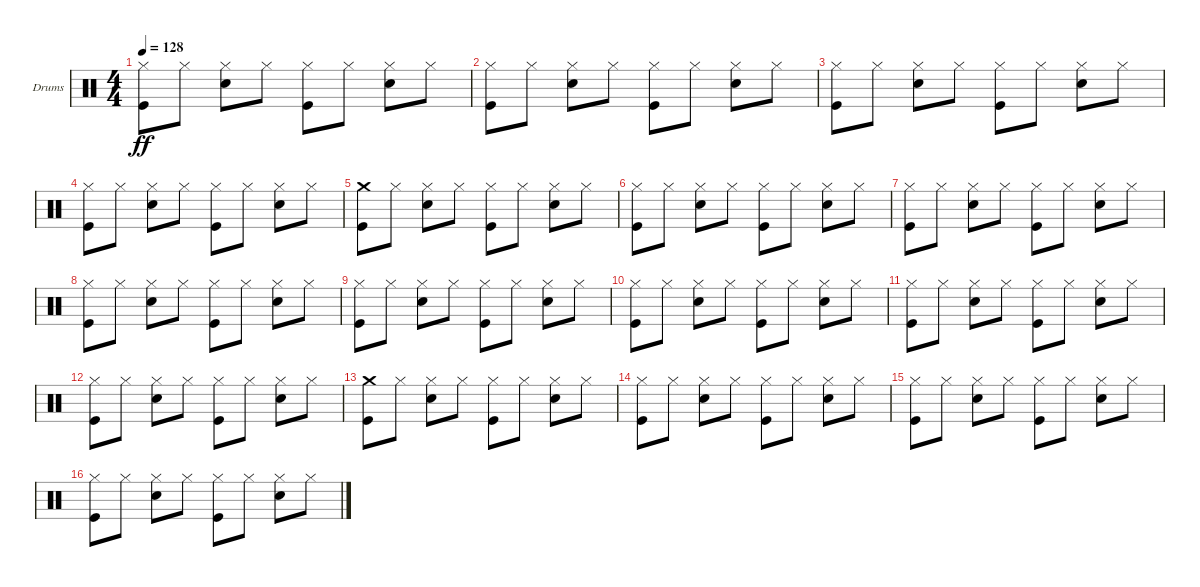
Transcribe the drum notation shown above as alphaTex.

\defaultSystemsLayout 4
\bracketExtendMode groupsimilarinstruments
\firstSystemTrackNameOrientation horizontal
\otherSystemsTrackNameOrientation horizontal
\track ("Drums" "Drums") {instrument percussion}
\staff {score}
\articulation defaults
\ts (4 4)
\tempo 128
\clef neutral
\ks c
("Kick (hit)" "Hi-Hat (closed)").8{dy ff} "Hi-Hat (closed)".8 ("Snare (hit) 2" "Hi-Hat (closed)").8 "Hi-Hat (closed)".8 ("Kick (hit)" "Hi-Hat (closed)").8 "Hi-Hat (closed)".8 ("Snare (hit) 2" "Hi-Hat (closed)").8 "Hi-Hat (closed)".8 |
("Kick (hit)" "Hi-Hat (closed)").8 "Hi-Hat (closed)".8 ("Snare (hit) 2" "Hi-Hat (closed)").8 "Hi-Hat (closed)".8 ("Hi-Hat (closed)" "Kick (hit)").8 "Hi-Hat (closed)".8 ("Snare (hit) 2" "Hi-Hat (closed)").8 "Hi-Hat (closed)".8 |
("Kick (hit)" "Hi-Hat (closed)").8 "Hi-Hat (closed)".8 ("Snare (hit) 2" "Hi-Hat (closed)").8 "Hi-Hat (closed)".8 ("Kick (hit)" "Hi-Hat (closed)").8 "Hi-Hat (closed)".8 ("Snare (hit) 2" "Hi-Hat (closed)").8 "Hi-Hat (closed)".8 |
("Kick (hit)" "Hi-Hat (closed)").8 "Hi-Hat (closed)".8 ("Snare (hit) 2" "Hi-Hat (closed)").8 "Hi-Hat (closed)".8 ("Hi-Hat (closed)" "Kick (hit)").8 "Hi-Hat (closed)".8 ("Snare (hit) 2" "Hi-Hat (closed)").8 "Hi-Hat (closed)".8 |
("Kick (hit)" "Crash medium (hit)").8 "Hi-Hat (closed)".8 ("Snare (hit) 2" "Hi-Hat (closed)").8 "Hi-Hat (closed)".8 ("Kick (hit)" "Hi-Hat (closed)").8 "Hi-Hat (closed)".8 ("Snare (hit) 2" "Hi-Hat (closed)").8 "Hi-Hat (closed)".8 |
("Kick (hit)" "Hi-Hat (closed)").8 "Hi-Hat (closed)".8 ("Snare (hit) 2" "Hi-Hat (closed)").8 "Hi-Hat (closed)".8 ("Hi-Hat (closed)" "Kick (hit)").8 "Hi-Hat (closed)".8 ("Snare (hit) 2" "Hi-Hat (closed)").8 "Hi-Hat (closed)".8 |
("Kick (hit)" "Hi-Hat (closed)").8 "Hi-Hat (closed)".8 ("Snare (hit) 2" "Hi-Hat (closed)").8 "Hi-Hat (closed)".8 ("Kick (hit)" "Hi-Hat (closed)").8 "Hi-Hat (closed)".8 ("Snare (hit) 2" "Hi-Hat (closed)").8 "Hi-Hat (closed)".8 |
("Kick (hit)" "Hi-Hat (closed)").8 "Hi-Hat (closed)".8 ("Snare (hit) 2" "Hi-Hat (closed)").8 "Hi-Hat (closed)".8 ("Hi-Hat (closed)" "Kick (hit)").8 "Hi-Hat (closed)".8 ("Snare (hit) 2" "Hi-Hat (closed)").8 "Hi-Hat (closed)".8 |
("Kick (hit)" "Hi-Hat (closed)").8 "Hi-Hat (closed)".8 ("Snare (hit) 2" "Hi-Hat (closed)").8 "Hi-Hat (closed)".8 ("Kick (hit)" "Hi-Hat (closed)").8 "Hi-Hat (closed)".8 ("Snare (hit) 2" "Hi-Hat (closed)").8 "Hi-Hat (closed)".8 |
("Kick (hit)" "Hi-Hat (closed)").8 "Hi-Hat (closed)".8 ("Snare (hit) 2" "Hi-Hat (closed)").8 "Hi-Hat (closed)".8 ("Hi-Hat (closed)" "Kick (hit)").8 "Hi-Hat (closed)".8 ("Snare (hit) 2" "Hi-Hat (closed)").8 "Hi-Hat (closed)".8 |
("Kick (hit)" "Hi-Hat (closed)").8 "Hi-Hat (closed)".8 ("Snare (hit) 2" "Hi-Hat (closed)").8 "Hi-Hat (closed)".8 ("Hi-Hat (closed)" "Kick (hit)").8 "Hi-Hat (closed)".8 ("Snare (hit) 2" "Hi-Hat (closed)").8 "Hi-Hat (closed)".8 |
("Kick (hit)" "Hi-Hat (closed)").8 "Hi-Hat (closed)".8 ("Snare (hit) 2" "Hi-Hat (closed)").8 "Hi-Hat (closed)".8 ("Kick (hit)" "Hi-Hat (closed)").8 "Hi-Hat (closed)".8 ("Snare (hit) 2" "Hi-Hat (closed)").8 "Hi-Hat (closed)".8 |
("Kick (hit)" "Crash medium (hit)").8 "Hi-Hat (closed)".8 ("Snare (hit) 2" "Hi-Hat (closed)").8 "Hi-Hat (closed)".8 ("Hi-Hat (closed)" "Kick (hit)").8 "Hi-Hat (closed)".8 ("Snare (hit) 2" "Hi-Hat (closed)").8 "Hi-Hat (closed)".8 |
("Kick (hit)" "Hi-Hat (closed)").8 "Hi-Hat (closed)".8 ("Snare (hit) 2" "Hi-Hat (closed)").8 "Hi-Hat (closed)".8 ("Kick (hit)" "Hi-Hat (closed)").8 "Hi-Hat (closed)".8 ("Snare (hit) 2" "Hi-Hat (closed)").8 "Hi-Hat (closed)".8 |
("Kick (hit)" "Hi-Hat (closed)").8 "Hi-Hat (closed)".8 ("Snare (hit) 2" "Hi-Hat (closed)").8 "Hi-Hat (closed)".8 ("Hi-Hat (closed)" "Kick (hit)").8 "Hi-Hat (closed)".8 ("Snare (hit) 2" "Hi-Hat (closed)").8 "Hi-Hat (closed)".8 |
("Kick (hit)" "Hi-Hat (closed)").8 "Hi-Hat (closed)".8 ("Snare (hit) 2" "Hi-Hat (closed)").8 "Hi-Hat (closed)".8 ("Kick (hit)" "Hi-Hat (closed)").8 "Hi-Hat (closed)".8 ("Snare (hit) 2" "Hi-Hat (closed)").8 "Hi-Hat (closed)".8
